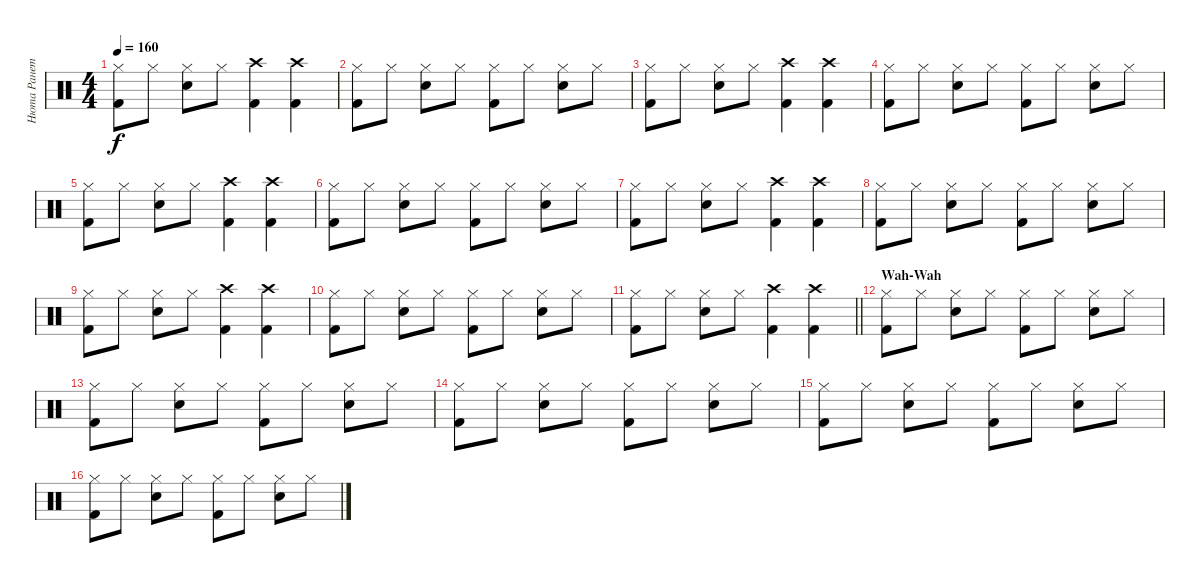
\track ("Нюта Ранетка" "Нюта Ранет") {instrument percussion}
\staff {score}
\articulation defaults
\ts (4 4)
\tempo 160
\clef neutral
\ks c
("Hi-Hat (closed)" "Kick (hit) 2").8{dy f} "Hi-Hat (closed)".8 ("Hi-Hat (closed)" "Snare (hit) 2").8 "Hi-Hat (closed)".8 ("Crash high (hit)" "Kick (hit) 2").4 ("Crash high (hit)" "Kick (hit) 2").4 |
("Hi-Hat (closed)" "Kick (hit) 2").8 "Hi-Hat (closed)".8 ("Hi-Hat (closed)" "Snare (hit) 2").8 "Hi-Hat (closed)".8 ("Hi-Hat (closed)" "Kick (hit) 2").8 "Hi-Hat (closed)".8 ("Hi-Hat (closed)" "Snare (hit) 2").8 "Hi-Hat (closed)".8 |
("Hi-Hat (closed)" "Kick (hit) 2").8 "Hi-Hat (closed)".8 ("Hi-Hat (closed)" "Snare (hit) 2").8 "Hi-Hat (closed)".8 ("Crash high (hit)" "Kick (hit) 2").4 ("Crash high (hit)" "Kick (hit) 2").4 |
("Hi-Hat (closed)" "Kick (hit) 2").8 "Hi-Hat (closed)".8 ("Hi-Hat (closed)" "Snare (hit) 2").8 "Hi-Hat (closed)".8 ("Hi-Hat (closed)" "Kick (hit) 2").8 "Hi-Hat (closed)".8 ("Hi-Hat (closed)" "Snare (hit) 2").8 "Hi-Hat (closed)".8 |
("Hi-Hat (closed)" "Kick (hit) 2").8 "Hi-Hat (closed)".8 ("Hi-Hat (closed)" "Snare (hit) 2").8 "Hi-Hat (closed)".8 ("Crash high (hit)" "Kick (hit) 2").4 ("Crash high (hit)" "Kick (hit) 2").4 |
("Hi-Hat (closed)" "Kick (hit) 2").8 "Hi-Hat (closed)".8 ("Hi-Hat (closed)" "Snare (hit) 2").8 "Hi-Hat (closed)".8 ("Hi-Hat (closed)" "Kick (hit) 2").8 "Hi-Hat (closed)".8 ("Hi-Hat (closed)" "Snare (hit) 2").8 "Hi-Hat (closed)".8 |
("Hi-Hat (closed)" "Kick (hit) 2").8 "Hi-Hat (closed)".8 ("Hi-Hat (closed)" "Snare (hit) 2").8 "Hi-Hat (closed)".8 ("Crash high (hit)" "Kick (hit) 2").4 ("Crash high (hit)" "Kick (hit) 2").4 |
("Hi-Hat (closed)" "Kick (hit) 2").8 "Hi-Hat (closed)".8 ("Hi-Hat (closed)" "Snare (hit) 2").8 "Hi-Hat (closed)".8 ("Hi-Hat (closed)" "Kick (hit) 2").8 "Hi-Hat (closed)".8 ("Hi-Hat (closed)" "Snare (hit) 2").8 "Hi-Hat (closed)".8 |
("Hi-Hat (closed)" "Kick (hit) 2").8 "Hi-Hat (closed)".8 ("Hi-Hat (closed)" "Snare (hit) 2").8 "Hi-Hat (closed)".8 ("Crash high (hit)" "Kick (hit) 2").4 ("Crash high (hit)" "Kick (hit) 2").4 |
("Hi-Hat (closed)" "Kick (hit) 2").8 "Hi-Hat (closed)".8 ("Hi-Hat (closed)" "Snare (hit) 2").8 "Hi-Hat (closed)".8 ("Hi-Hat (closed)" "Kick (hit) 2").8 "Hi-Hat (closed)".8 ("Hi-Hat (closed)" "Snare (hit) 2").8 "Hi-Hat (closed)".8 |
\barLineRight lightlight
("Hi-Hat (closed)" "Kick (hit) 2").8 "Hi-Hat (closed)".8 ("Hi-Hat (closed)" "Snare (hit) 2").8 "Hi-Hat (closed)".8 ("Crash high (hit)" "Kick (hit) 2").4 ("Crash high (hit)" "Kick (hit) 2").4 |
\section ("" "Wah-Wah")
("Hi-Hat (closed)" "Kick (hit) 2").8 "Hi-Hat (closed)".8 ("Hi-Hat (closed)" "Snare (hit) 2").8 "Hi-Hat (closed)".8 ("Hi-Hat (closed)" "Kick (hit) 2").8 "Hi-Hat (closed)".8 ("Hi-Hat (closed)" "Snare (hit) 2").8 "Hi-Hat (closed)".8 |
("Hi-Hat (closed)" "Kick (hit) 2").8 "Hi-Hat (closed)".8 ("Hi-Hat (closed)" "Snare (hit) 2").8 "Hi-Hat (closed)".8 ("Hi-Hat (closed)" "Kick (hit) 2").8 "Hi-Hat (closed)".8 ("Hi-Hat (closed)" "Snare (hit) 2").8 "Hi-Hat (closed)".8 |
("Hi-Hat (closed)" "Kick (hit) 2").8 "Hi-Hat (closed)".8 ("Hi-Hat (closed)" "Snare (hit) 2").8 "Hi-Hat (closed)".8 ("Hi-Hat (closed)" "Kick (hit) 2").8 "Hi-Hat (closed)".8 ("Hi-Hat (closed)" "Snare (hit) 2").8 "Hi-Hat (closed)".8 |
("Hi-Hat (closed)" "Kick (hit) 2").8 "Hi-Hat (closed)".8 ("Hi-Hat (closed)" "Snare (hit) 2").8 "Hi-Hat (closed)".8 ("Hi-Hat (closed)" "Kick (hit) 2").8 "Hi-Hat (closed)".8 ("Hi-Hat (closed)" "Snare (hit) 2").8 "Hi-Hat (closed)".8 |
("Hi-Hat (closed)" "Kick (hit) 2").8 "Hi-Hat (closed)".8 ("Hi-Hat (closed)" "Snare (hit) 2").8 "Hi-Hat (closed)".8 ("Hi-Hat (closed)" "Kick (hit) 2").8 "Hi-Hat (closed)".8 ("Hi-Hat (closed)" "Snare (hit) 2").8 "Hi-Hat (closed)".8
